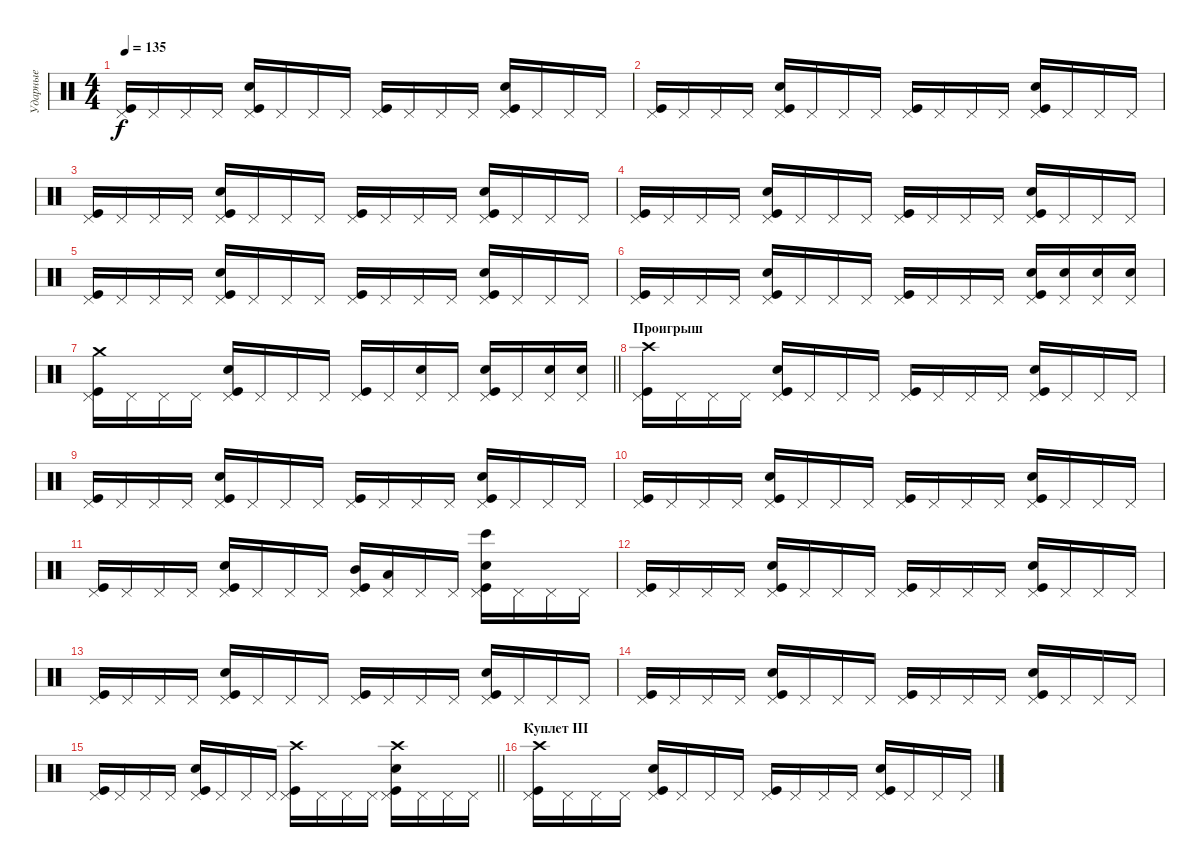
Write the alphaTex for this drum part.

\track ("Ударные" "Ударные") {instrument percussion}
\staff {score}
\articulation defaults
\ts (4 4)
\tempo 135
\clef neutral
\ks c
("Kick (hit)" "Pedal Hi-Hat (hit)").16{dy f} "Pedal Hi-Hat (hit)".16 "Pedal Hi-Hat (hit)".16 "Pedal Hi-Hat (hit)".16 ("Kick (hit)" "Pedal Hi-Hat (hit)" "Snare (hit) 2").16 "Pedal Hi-Hat (hit)".16 "Pedal Hi-Hat (hit)".16 "Pedal Hi-Hat (hit)".16 ("Kick (hit)" "Pedal Hi-Hat (hit)").16 "Pedal Hi-Hat (hit)".16 "Pedal Hi-Hat (hit)".16 "Pedal Hi-Hat (hit)".16 ("Kick (hit)" "Pedal Hi-Hat (hit)" "Snare (hit) 2").16 "Pedal Hi-Hat (hit)".16 "Pedal Hi-Hat (hit)".16 "Pedal Hi-Hat (hit)".16 |
("Kick (hit)" "Pedal Hi-Hat (hit)").16 "Pedal Hi-Hat (hit)".16 "Pedal Hi-Hat (hit)".16 "Pedal Hi-Hat (hit)".16 ("Kick (hit)" "Pedal Hi-Hat (hit)" "Snare (hit) 2").16 "Pedal Hi-Hat (hit)".16 "Pedal Hi-Hat (hit)".16 "Pedal Hi-Hat (hit)".16 ("Kick (hit)" "Pedal Hi-Hat (hit)").16 "Pedal Hi-Hat (hit)".16 "Pedal Hi-Hat (hit)".16 "Pedal Hi-Hat (hit)".16 ("Kick (hit)" "Pedal Hi-Hat (hit)" "Snare (hit) 2").16 "Pedal Hi-Hat (hit)".16 "Pedal Hi-Hat (hit)".16 "Pedal Hi-Hat (hit)".16 |
("Kick (hit)" "Pedal Hi-Hat (hit)").16 "Pedal Hi-Hat (hit)".16 "Pedal Hi-Hat (hit)".16 "Pedal Hi-Hat (hit)".16 ("Kick (hit)" "Pedal Hi-Hat (hit)" "Snare (hit) 2").16 "Pedal Hi-Hat (hit)".16 "Pedal Hi-Hat (hit)".16 "Pedal Hi-Hat (hit)".16 ("Kick (hit)" "Pedal Hi-Hat (hit)").16 "Pedal Hi-Hat (hit)".16 "Pedal Hi-Hat (hit)".16 "Pedal Hi-Hat (hit)".16 ("Kick (hit)" "Pedal Hi-Hat (hit)" "Snare (hit) 2").16 "Pedal Hi-Hat (hit)".16 "Pedal Hi-Hat (hit)".16 "Pedal Hi-Hat (hit)".16 |
("Kick (hit)" "Pedal Hi-Hat (hit)").16 "Pedal Hi-Hat (hit)".16 "Pedal Hi-Hat (hit)".16 "Pedal Hi-Hat (hit)".16 ("Kick (hit)" "Pedal Hi-Hat (hit)" "Snare (hit) 2").16 "Pedal Hi-Hat (hit)".16 "Pedal Hi-Hat (hit)".16 "Pedal Hi-Hat (hit)".16 ("Kick (hit)" "Pedal Hi-Hat (hit)").16 "Pedal Hi-Hat (hit)".16 "Pedal Hi-Hat (hit)".16 "Pedal Hi-Hat (hit)".16 ("Kick (hit)" "Pedal Hi-Hat (hit)" "Snare (hit) 2").16 "Pedal Hi-Hat (hit)".16 "Pedal Hi-Hat (hit)".16 "Pedal Hi-Hat (hit)".16 |
("Kick (hit)" "Pedal Hi-Hat (hit)").16 "Pedal Hi-Hat (hit)".16 "Pedal Hi-Hat (hit)".16 "Pedal Hi-Hat (hit)".16 ("Kick (hit)" "Pedal Hi-Hat (hit)" "Snare (hit) 2").16 "Pedal Hi-Hat (hit)".16 "Pedal Hi-Hat (hit)".16 "Pedal Hi-Hat (hit)".16 ("Kick (hit)" "Pedal Hi-Hat (hit)").16 "Pedal Hi-Hat (hit)".16 "Pedal Hi-Hat (hit)".16 "Pedal Hi-Hat (hit)".16 ("Kick (hit)" "Pedal Hi-Hat (hit)" "Snare (hit) 2").16 "Pedal Hi-Hat (hit)".16 "Pedal Hi-Hat (hit)".16 "Pedal Hi-Hat (hit)".16 |
("Kick (hit)" "Pedal Hi-Hat (hit)").16 "Pedal Hi-Hat (hit)".16 "Pedal Hi-Hat (hit)".16 "Pedal Hi-Hat (hit)".16 ("Kick (hit)" "Pedal Hi-Hat (hit)" "Snare (hit) 2").16 "Pedal Hi-Hat (hit)".16 "Pedal Hi-Hat (hit)".16 "Pedal Hi-Hat (hit)".16 ("Kick (hit)" "Pedal Hi-Hat (hit)").16 "Pedal Hi-Hat (hit)".16 "Pedal Hi-Hat (hit)".16 "Pedal Hi-Hat (hit)".16 ("Kick (hit)" "Pedal Hi-Hat (hit)" "Snare (hit) 2").16 ("Pedal Hi-Hat (hit)" "Snare (hit) 2").16 ("Pedal Hi-Hat (hit)" "Snare (hit) 2").16 ("Pedal Hi-Hat (hit)" "Snare (hit) 2").16 |
\barLineRight lightlight
("Kick (hit)" "Pedal Hi-Hat (hit)" "Crash medium (hit)").16 "Pedal Hi-Hat (hit)".16 "Pedal Hi-Hat (hit)".16 "Pedal Hi-Hat (hit)".16 ("Kick (hit)" "Pedal Hi-Hat (hit)" "Snare (hit) 2").16 "Pedal Hi-Hat (hit)".16 "Pedal Hi-Hat (hit)".16 "Pedal Hi-Hat (hit)".16 ("Kick (hit)" "Pedal Hi-Hat (hit)").16 "Pedal Hi-Hat (hit)".16 ("Pedal Hi-Hat (hit)" "Snare (hit) 2").16 "Pedal Hi-Hat (hit)".16 ("Kick (hit)" "Pedal Hi-Hat (hit)" "Snare (hit) 2").16 "Pedal Hi-Hat (hit)".16 ("Pedal Hi-Hat (hit)" "Snare (hit) 2").16 ("Pedal Hi-Hat (hit)" "Snare (hit) 2").16 |
\section ("" "Проигрыш")
("Kick (hit)" "Pedal Hi-Hat (hit)" "Crash high (hit)").16 "Pedal Hi-Hat (hit)".16 "Pedal Hi-Hat (hit)".16 "Pedal Hi-Hat (hit)".16 ("Kick (hit)" "Pedal Hi-Hat (hit)" "Snare (hit) 2").16 "Pedal Hi-Hat (hit)".16 "Pedal Hi-Hat (hit)".16 "Pedal Hi-Hat (hit)".16 ("Kick (hit)" "Pedal Hi-Hat (hit)").16 "Pedal Hi-Hat (hit)".16 "Pedal Hi-Hat (hit)".16 "Pedal Hi-Hat (hit)".16 ("Kick (hit)" "Pedal Hi-Hat (hit)" "Snare (hit) 2").16 "Pedal Hi-Hat (hit)".16 "Pedal Hi-Hat (hit)".16 "Pedal Hi-Hat (hit)".16 |
("Kick (hit)" "Pedal Hi-Hat (hit)").16 "Pedal Hi-Hat (hit)".16 "Pedal Hi-Hat (hit)".16 "Pedal Hi-Hat (hit)".16 ("Kick (hit)" "Pedal Hi-Hat (hit)" "Snare (hit) 2").16 "Pedal Hi-Hat (hit)".16 "Pedal Hi-Hat (hit)".16 "Pedal Hi-Hat (hit)".16 ("Kick (hit)" "Pedal Hi-Hat (hit)").16 "Pedal Hi-Hat (hit)".16 "Pedal Hi-Hat (hit)".16 "Pedal Hi-Hat (hit)".16 ("Kick (hit)" "Pedal Hi-Hat (hit)" "Snare (hit) 2").16 "Pedal Hi-Hat (hit)".16 "Pedal Hi-Hat (hit)".16 "Pedal Hi-Hat (hit)".16 |
("Kick (hit)" "Pedal Hi-Hat (hit)").16 "Pedal Hi-Hat (hit)".16 "Pedal Hi-Hat (hit)".16 "Pedal Hi-Hat (hit)".16 ("Kick (hit)" "Pedal Hi-Hat (hit)" "Snare (hit) 2").16 "Pedal Hi-Hat (hit)".16 "Pedal Hi-Hat (hit)".16 "Pedal Hi-Hat (hit)".16 ("Kick (hit)" "Pedal Hi-Hat (hit)").16 "Pedal Hi-Hat (hit)".16 "Pedal Hi-Hat (hit)".16 "Pedal Hi-Hat (hit)".16 ("Kick (hit)" "Pedal Hi-Hat (hit)" "Snare (hit) 2").16 "Pedal Hi-Hat (hit)".16 "Pedal Hi-Hat (hit)".16 "Pedal Hi-Hat (hit)".16 |
("Kick (hit)" "Pedal Hi-Hat (hit)").16 "Pedal Hi-Hat (hit)".16 "Pedal Hi-Hat (hit)".16 "Pedal Hi-Hat (hit)".16 ("Kick (hit)" "Pedal Hi-Hat (hit)" "Snare (hit) 2").16 "Pedal Hi-Hat (hit)".16 "Pedal Hi-Hat (hit)".16 "Pedal Hi-Hat (hit)".16 ("Kick (hit)" "Pedal Hi-Hat (hit)" "Mid Tom (hit)").16 ("Pedal Hi-Hat (hit)" "Low Tom (hit)").16 "Pedal Hi-Hat (hit)".16 "Pedal Hi-Hat (hit)".16 ("Kick (hit)" "Pedal Hi-Hat (hit)" "Snare (hit) 2" "Bongo High (hit)").16 "Pedal Hi-Hat (hit)".16 "Pedal Hi-Hat (hit)".16 "Pedal Hi-Hat (hit)".16 |
("Kick (hit)" "Pedal Hi-Hat (hit)").16 "Pedal Hi-Hat (hit)".16 "Pedal Hi-Hat (hit)".16 "Pedal Hi-Hat (hit)".16 ("Kick (hit)" "Pedal Hi-Hat (hit)" "Snare (hit) 2").16 "Pedal Hi-Hat (hit)".16 "Pedal Hi-Hat (hit)".16 "Pedal Hi-Hat (hit)".16 ("Kick (hit)" "Pedal Hi-Hat (hit)").16 "Pedal Hi-Hat (hit)".16 "Pedal Hi-Hat (hit)".16 "Pedal Hi-Hat (hit)".16 ("Kick (hit)" "Pedal Hi-Hat (hit)" "Snare (hit) 2").16 "Pedal Hi-Hat (hit)".16 "Pedal Hi-Hat (hit)".16 "Pedal Hi-Hat (hit)".16 |
("Kick (hit)" "Pedal Hi-Hat (hit)").16 "Pedal Hi-Hat (hit)".16 "Pedal Hi-Hat (hit)".16 "Pedal Hi-Hat (hit)".16 ("Kick (hit)" "Pedal Hi-Hat (hit)" "Snare (hit) 2").16 "Pedal Hi-Hat (hit)".16 "Pedal Hi-Hat (hit)".16 "Pedal Hi-Hat (hit)".16 ("Kick (hit)" "Pedal Hi-Hat (hit)").16 "Pedal Hi-Hat (hit)".16 "Pedal Hi-Hat (hit)".16 "Pedal Hi-Hat (hit)".16 ("Kick (hit)" "Pedal Hi-Hat (hit)" "Snare (hit) 2").16 "Pedal Hi-Hat (hit)".16 "Pedal Hi-Hat (hit)".16 "Pedal Hi-Hat (hit)".16 |
("Kick (hit)" "Pedal Hi-Hat (hit)").16 "Pedal Hi-Hat (hit)".16 "Pedal Hi-Hat (hit)".16 "Pedal Hi-Hat (hit)".16 ("Kick (hit)" "Pedal Hi-Hat (hit)" "Snare (hit) 2").16 "Pedal Hi-Hat (hit)".16 "Pedal Hi-Hat (hit)".16 "Pedal Hi-Hat (hit)".16 ("Kick (hit)" "Pedal Hi-Hat (hit)").16 "Pedal Hi-Hat (hit)".16 "Pedal Hi-Hat (hit)".16 "Pedal Hi-Hat (hit)".16 ("Kick (hit)" "Pedal Hi-Hat (hit)" "Snare (hit) 2").16 "Pedal Hi-Hat (hit)".16 "Pedal Hi-Hat (hit)".16 "Pedal Hi-Hat (hit)".16 |
\barLineRight lightlight
("Kick (hit)" "Pedal Hi-Hat (hit)").16 "Pedal Hi-Hat (hit)".16 "Pedal Hi-Hat (hit)".16 "Pedal Hi-Hat (hit)".16 ("Kick (hit)" "Pedal Hi-Hat (hit)" "Snare (hit) 2").16 "Pedal Hi-Hat (hit)".16 "Pedal Hi-Hat (hit)".16 "Pedal Hi-Hat (hit)".16 ("Kick (hit)" "Pedal Hi-Hat (hit)" "Crash high (hit)").16 "Pedal Hi-Hat (hit)".16 "Pedal Hi-Hat (hit)".16 "Pedal Hi-Hat (hit)".16 ("Kick (hit)" "Pedal Hi-Hat (hit)" "Snare (hit) 2" "Crash high (hit)").16 "Pedal Hi-Hat (hit)".16 "Pedal Hi-Hat (hit)".16 "Pedal Hi-Hat (hit)".16 |
\section ("" "Куплет III")
("Kick (hit)" "Pedal Hi-Hat (hit)" "Crash high (hit)").16 "Pedal Hi-Hat (hit)".16 "Pedal Hi-Hat (hit)".16 "Pedal Hi-Hat (hit)".16 ("Kick (hit)" "Pedal Hi-Hat (hit)" "Snare (hit) 2").16 "Pedal Hi-Hat (hit)".16 "Pedal Hi-Hat (hit)".16 "Pedal Hi-Hat (hit)".16 ("Kick (hit)" "Pedal Hi-Hat (hit)").16 "Pedal Hi-Hat (hit)".16 "Pedal Hi-Hat (hit)".16 "Pedal Hi-Hat (hit)".16 ("Kick (hit)" "Pedal Hi-Hat (hit)" "Snare (hit) 2").16 "Pedal Hi-Hat (hit)".16 "Pedal Hi-Hat (hit)".16 "Pedal Hi-Hat (hit)".16
